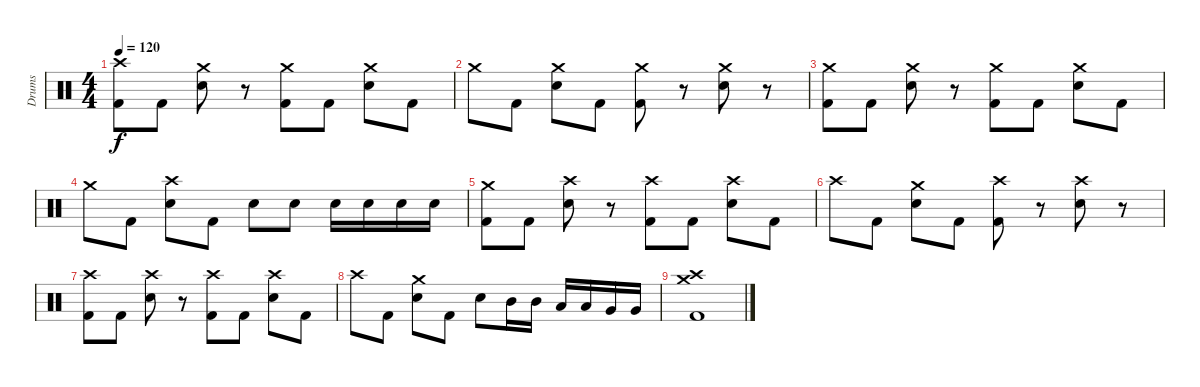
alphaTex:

\track ("Drums" "Drums") {instrument percussion}
\staff {score}
\articulation defaults
\ts (4 4)
\tempo 120
\clef neutral
\ks c
("Crash high (hit)" "Kick (hit) 2").8{dy f} "Kick (hit) 2".8 ("Crash medium (hit)" "Snare (hit) 2").8 r.8 ("Crash medium (hit)" "Kick (hit) 2").8 "Kick (hit) 2".8 ("Crash medium (hit)" "Snare (hit) 2").8 "Kick (hit) 2".8 |
"Crash medium (hit)".8 "Kick (hit) 2".8 ("Crash medium (hit)" "Snare (hit) 2").8 "Kick (hit) 2".8 ("Crash medium (hit)" "Kick (hit) 2").8 r.8 ("Crash medium (hit)" "Snare (hit) 2").8 r.8 |
("Crash medium (hit)" "Kick (hit) 2").8 "Kick (hit) 2".8 ("Crash medium (hit)" "Snare (hit) 2").8 r.8 ("Crash medium (hit)" "Kick (hit) 2").8 "Kick (hit) 2".8 ("Crash medium (hit)" "Snare (hit) 2").8 "Kick (hit) 2".8 |
"Crash medium (hit)".8 "Kick (hit) 2".8 ("Crash high (hit)" "Snare (hit) 2").8 "Kick (hit) 2".8 "Snare (hit) 2".8 "Snare (hit) 2".8 "Snare (hit) 2".16 "Snare (hit) 2".16 "Snare (hit) 2".16 "Snare (hit) 2".16 |
("Crash medium (hit)" "Kick (hit) 2").8 "Kick (hit) 2".8 ("Crash high (hit)" "Snare (hit) 2").8 r.8 ("Crash high (hit)" "Kick (hit) 2").8 "Kick (hit) 2".8 ("Crash high (hit)" "Snare (hit) 2").8 "Kick (hit) 2".8 |
"Crash high (hit)".8 "Kick (hit) 2".8 ("Crash medium (hit)" "Snare (hit) 2").8 "Kick (hit) 2".8 ("Crash high (hit)" "Kick (hit) 2").8 r.8 ("Crash high (hit)" "Snare (hit) 2").8 r.8 |
("Crash high (hit)" "Kick (hit) 2").8 "Kick (hit) 2".8 ("Crash high (hit)" "Snare (hit) 2").8 r.8 ("Crash high (hit)" "Kick (hit) 2").8 "Kick (hit) 2".8 ("Crash high (hit)" "Snare (hit) 2").8 "Kick (hit) 2".8 |
"Crash high (hit)".8 "Kick (hit) 2".8 ("Crash medium (hit)" "Snare (hit) 2").8 "Kick (hit) 2".8 "Snare (hit) 2".8 "Mid Tom (hit)".16 "Mid Tom (hit)".16 "Low Tom (hit)".16 "Low Tom (hit)".16 "Very Low Tom (hit)".16 "Very Low Tom (hit)".16 |
("Crash high (hit)" "Crash medium (hit)" "Kick (hit) 2").1
